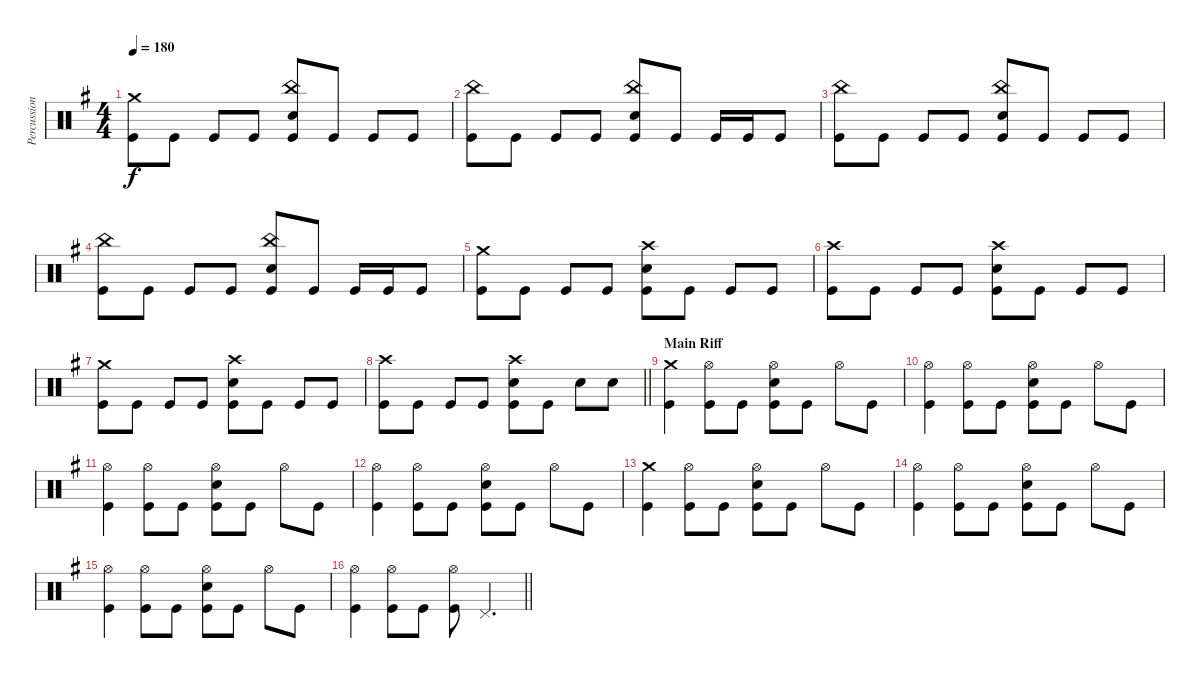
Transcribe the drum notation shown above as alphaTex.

\track ("Percussion" "Percussion") {instrument percussion}
\staff {score}
\articulation defaults
\ts (4 4)
\tempo 180
\clef neutral
\ks g
("Crash medium (hit)" "Kick (hit)").8{dy f} "Kick (hit)".8 "Kick (hit)".8 "Kick (hit)".8 ("China (hit)" "Electric Snare (hit)" "Kick (hit)").8 "Kick (hit)".8 "Kick (hit)".8 "Kick (hit)".8 |
("China (hit)" "Kick (hit)").8 "Kick (hit)".8 "Kick (hit)".8 "Kick (hit)".8 ("China (hit)" "Electric Snare (hit)" "Kick (hit)").8 "Kick (hit)".8 "Kick (hit)".16 "Kick (hit)".16 "Kick (hit)".8 |
("China (hit)" "Kick (hit)").8 "Kick (hit)".8 "Kick (hit)".8 "Kick (hit)".8 ("China (hit)" "Electric Snare (hit)" "Kick (hit)").8 "Kick (hit)".8 "Kick (hit)".8 "Kick (hit)".8 |
("China (hit)" "Kick (hit)").8 "Kick (hit)".8 "Kick (hit)".8 "Kick (hit)".8 ("China (hit)" "Electric Snare (hit)" "Kick (hit)").8 "Kick (hit)".8 "Kick (hit)".16 "Kick (hit)".16 "Kick (hit)".8 |
("Crash medium (hit)" "Kick (hit)").8 "Kick (hit)".8 "Kick (hit)".8 "Kick (hit)".8 ("Crash high (hit)" "Electric Snare (hit)" "Kick (hit)").8 "Kick (hit)".8 "Kick (hit)".8 "Kick (hit)".8 |
("Crash high (hit)" "Kick (hit)").8 "Kick (hit)".8 "Kick (hit)".8 "Kick (hit)".8 ("Crash high (hit)" "Electric Snare (hit)" "Kick (hit)").8 "Kick (hit)".8 "Kick (hit)".8 "Kick (hit)".8 |
("Crash medium (hit)" "Kick (hit)").8 "Kick (hit)".8 "Kick (hit)".8 "Kick (hit)".8 ("Crash high (hit)" "Electric Snare (hit)" "Kick (hit)").8 "Kick (hit)".8 "Kick (hit)".8 "Kick (hit)".8 |
\barLineRight lightlight
("Crash high (hit)" "Kick (hit)").8 "Kick (hit)".8 "Kick (hit)".8 "Kick (hit)".8 ("Crash high (hit)" "Electric Snare (hit)" "Kick (hit)").8 "Kick (hit)".8 "Electric Snare (hit)".8 "Electric Snare (hit)".8 |
\section ("" "Main Riff")
("Crash medium (hit)" "Kick (hit)").4 ("Hi-Hat (open)" "Kick (hit)").8 "Kick (hit)".8 ("Hi-Hat (open)" "Electric Snare (hit)" "Kick (hit)").8 "Kick (hit)".8 "Hi-Hat (open)".8 "Kick (hit)".8 |
("Hi-Hat (open)" "Kick (hit)").4 ("Hi-Hat (open)" "Kick (hit)").8 "Kick (hit)".8 ("Hi-Hat (open)" "Electric Snare (hit)" "Kick (hit)").8 "Kick (hit)".8 "Hi-Hat (open)".8 "Kick (hit)".8 |
("Hi-Hat (open)" "Kick (hit)").4 ("Hi-Hat (open)" "Kick (hit)").8 "Kick (hit)".8 ("Hi-Hat (open)" "Electric Snare (hit)" "Kick (hit)").8 "Kick (hit)".8 "Hi-Hat (open)".8 "Kick (hit)".8 |
("Hi-Hat (open)" "Kick (hit)").4 ("Hi-Hat (open)" "Kick (hit)").8 "Kick (hit)".8 ("Hi-Hat (open)" "Electric Snare (hit)" "Kick (hit)").8 "Kick (hit)".8 "Hi-Hat (open)".8 "Kick (hit)".8 |
("Crash medium (hit)" "Kick (hit)").4 ("Hi-Hat (open)" "Kick (hit)").8 "Kick (hit)".8 ("Hi-Hat (open)" "Electric Snare (hit)" "Kick (hit)").8 "Kick (hit)".8 "Hi-Hat (open)".8 "Kick (hit)".8 |
("Hi-Hat (open)" "Kick (hit)").4 ("Hi-Hat (open)" "Kick (hit)").8 "Kick (hit)".8 ("Hi-Hat (open)" "Electric Snare (hit)" "Kick (hit)").8 "Kick (hit)".8 "Hi-Hat (open)".8 "Kick (hit)".8 |
("Hi-Hat (open)" "Kick (hit)").4 ("Hi-Hat (open)" "Kick (hit)").8 "Kick (hit)".8 ("Hi-Hat (open)" "Electric Snare (hit)" "Kick (hit)").8 "Kick (hit)".8 "Hi-Hat (open)".8 "Kick (hit)".8 |
\barLineRight lightlight
("Hi-Hat (open)" "Kick (hit)").4 ("Hi-Hat (open)" "Kick (hit)").8 "Kick (hit)".8 ("Hi-Hat (open)" "Kick (hit)").8 "Pedal Hi-Hat (hit)".4{d}
